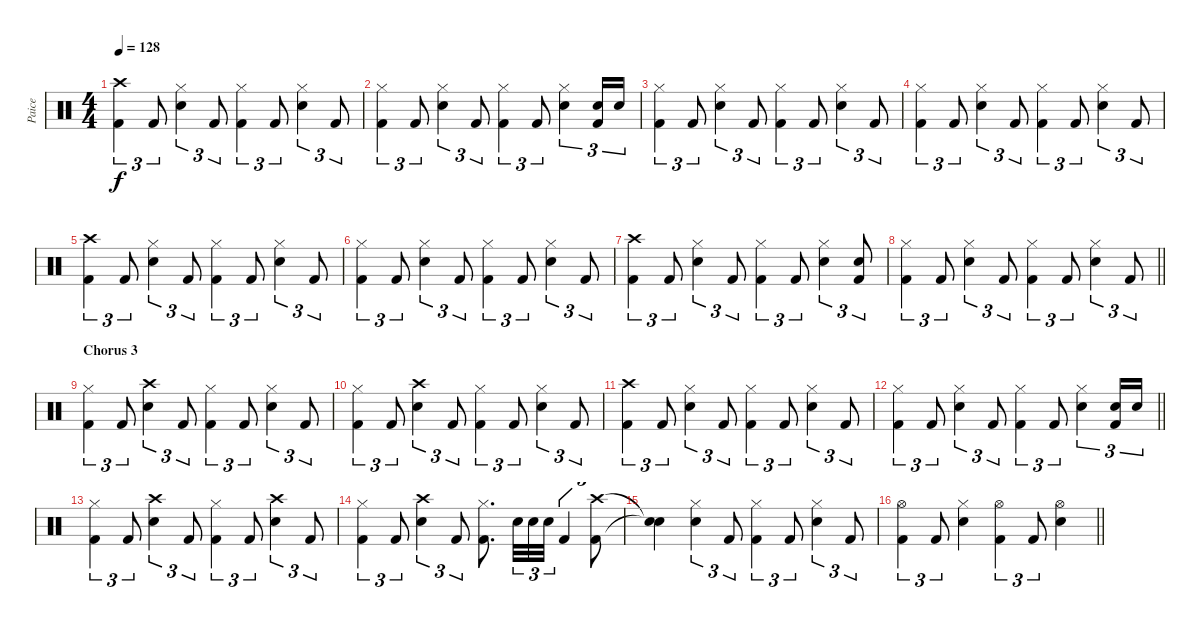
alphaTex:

\track ("Paice" "Paice") {instrument percussion}
\staff {score}
\articulation defaults
\ts (4 4)
\tempo 128
\clef neutral
\ks c
("Crash high (hit)" "Kick (hit) 2").4{tu (3 2) dy f} "Kick (hit) 2".8{tu (3 2)} ("Hi-Hat (closed)" "Snare (hit) 2").4{tu (3 2)} "Kick (hit) 2".8{tu (3 2)} ("Hi-Hat (closed)" "Kick (hit) 2").4{tu (3 2)} "Kick (hit) 2".8{tu (3 2)} ("Hi-Hat (closed)" "Snare (hit) 2").4{tu (3 2)} "Kick (hit) 2".8{tu (3 2)} |
("Hi-Hat (closed)" "Kick (hit) 2").4{tu (3 2)} "Kick (hit) 2".8{tu (3 2)} ("Hi-Hat (closed)" "Snare (hit) 2").4{tu (3 2)} "Kick (hit) 2".8{tu (3 2)} ("Hi-Hat (closed)" "Kick (hit) 2").4{tu (3 2)} "Kick (hit) 2".8{tu (3 2)} ("Hi-Hat (closed)" "Snare (hit) 2").4{tu (3 2)} ("Snare (hit) 2" "Kick (hit) 2").16{tu (3 2)} "Snare (hit) 2".16{tu (3 2)} |
("Hi-Hat (closed)" "Kick (hit) 2").4{tu (3 2)} "Kick (hit) 2".8{tu (3 2)} ("Hi-Hat (closed)" "Snare (hit) 2").4{tu (3 2)} "Kick (hit) 2".8{tu (3 2)} ("Hi-Hat (closed)" "Kick (hit) 2").4{tu (3 2)} "Kick (hit) 2".8{tu (3 2)} ("Hi-Hat (closed)" "Snare (hit) 2").4{tu (3 2)} "Kick (hit) 2".8{tu (3 2)} |
("Hi-Hat (closed)" "Kick (hit) 2").4{tu (3 2)} "Kick (hit) 2".8{tu (3 2)} ("Hi-Hat (closed)" "Snare (hit) 2").4{tu (3 2)} "Kick (hit) 2".8{tu (3 2)} ("Hi-Hat (closed)" "Kick (hit) 2").4{tu (3 2)} "Kick (hit) 2".8{tu (3 2)} ("Hi-Hat (closed)" "Snare (hit) 2").4{tu (3 2)} "Kick (hit) 2".8{tu (3 2)} |
("Crash high (hit)" "Kick (hit) 2").4{tu (3 2)} "Kick (hit) 2".8{tu (3 2)} ("Hi-Hat (closed)" "Snare (hit) 2").4{tu (3 2)} "Kick (hit) 2".8{tu (3 2)} ("Hi-Hat (closed)" "Kick (hit) 2").4{tu (3 2)} "Kick (hit) 2".8{tu (3 2)} ("Hi-Hat (closed)" "Snare (hit) 2").4{tu (3 2)} "Kick (hit) 2".8{tu (3 2)} |
("Hi-Hat (closed)" "Kick (hit) 2").4{tu (3 2)} "Kick (hit) 2".8{tu (3 2)} ("Hi-Hat (closed)" "Snare (hit) 2").4{tu (3 2)} "Kick (hit) 2".8{tu (3 2)} ("Hi-Hat (closed)" "Kick (hit) 2").4{tu (3 2)} "Kick (hit) 2".8{tu (3 2)} ("Hi-Hat (closed)" "Snare (hit) 2").4{tu (3 2)} "Kick (hit) 2".8{tu (3 2)} |
("Crash high (hit)" "Kick (hit) 2").4{tu (3 2)} "Kick (hit) 2".8{tu (3 2)} ("Hi-Hat (closed)" "Snare (hit) 2").4{tu (3 2)} "Kick (hit) 2".8{tu (3 2)} ("Hi-Hat (closed)" "Kick (hit) 2").4{tu (3 2)} "Kick (hit) 2".8{tu (3 2)} ("Hi-Hat (closed)" "Snare (hit) 2").4{tu (3 2)} ("Snare (hit) 2" "Kick (hit) 2").8{tu (3 2)} |
\barLineRight lightlight
("Hi-Hat (closed)" "Kick (hit) 2").4{tu (3 2)} "Kick (hit) 2".8{tu (3 2)} ("Hi-Hat (closed)" "Snare (hit) 2").4{tu (3 2)} "Kick (hit) 2".8{tu (3 2)} ("Hi-Hat (closed)" "Kick (hit) 2").4{tu (3 2)} "Kick (hit) 2".8{tu (3 2)} ("Hi-Hat (closed)" "Snare (hit) 2").4{tu (3 2)} "Kick (hit) 2".8{tu (3 2)} |
\section ("" "Chorus 3")
("Hi-Hat (closed)" "Kick (hit) 2").4{tu (3 2)} "Kick (hit) 2".8{tu (3 2)} ("Crash high (hit)" "Snare (hit) 2").4{tu (3 2)} "Kick (hit) 2".8{tu (3 2)} ("Hi-Hat (closed)" "Kick (hit) 2").4{tu (3 2)} "Kick (hit) 2".8{tu (3 2)} ("Hi-Hat (closed)" "Snare (hit) 2").4{tu (3 2)} "Kick (hit) 2".8{tu (3 2)} |
("Hi-Hat (closed)" "Kick (hit) 2").4{tu (3 2)} "Kick (hit) 2".8{tu (3 2)} ("Crash high (hit)" "Snare (hit) 2").4{tu (3 2)} "Kick (hit) 2".8{tu (3 2)} ("Hi-Hat (closed)" "Kick (hit) 2").4{tu (3 2)} "Kick (hit) 2".8{tu (3 2)} ("Hi-Hat (closed)" "Snare (hit) 2").4{tu (3 2)} "Kick (hit) 2".8{tu (3 2)} |
("Crash high (hit)" "Kick (hit) 2").4{tu (3 2)} "Kick (hit) 2".8{tu (3 2)} ("Hi-Hat (closed)" "Snare (hit) 2").4{tu (3 2)} "Kick (hit) 2".8{tu (3 2)} ("Hi-Hat (closed)" "Kick (hit) 2").4{tu (3 2)} "Kick (hit) 2".8{tu (3 2)} ("Hi-Hat (closed)" "Snare (hit) 2").4{tu (3 2)} "Kick (hit) 2".8{tu (3 2)} |
\barLineRight lightlight
("Hi-Hat (closed)" "Kick (hit) 2").4{tu (3 2)} "Kick (hit) 2".8{tu (3 2)} ("Hi-Hat (closed)" "Snare (hit) 2").4{tu (3 2)} "Kick (hit) 2".8{tu (3 2)} ("Hi-Hat (closed)" "Kick (hit) 2").4{tu (3 2)} "Kick (hit) 2".8{tu (3 2)} ("Hi-Hat (closed)" "Snare (hit) 2").4{tu (3 2)} ("Snare (hit) 2" "Kick (hit) 2").16{tu (3 2)} "Snare (hit) 2".16{tu (3 2)} |
("Hi-Hat (closed)" "Kick (hit) 2").4{tu (3 2)} "Kick (hit) 2".8{tu (3 2)} ("Crash high (hit)" "Snare (hit) 2").4{tu (3 2)} "Kick (hit) 2".8{tu (3 2)} ("Hi-Hat (closed)" "Kick (hit) 2").4{tu (3 2)} "Kick (hit) 2".8{tu (3 2)} ("Crash high (hit)" "Snare (hit) 2").4{tu (3 2)} "Kick (hit) 2".8{tu (3 2)} |
("Hi-Hat (closed)" "Kick (hit) 2").4{tu (3 2)} "Kick (hit) 2".8{tu (3 2)} ("Crash high (hit)" "Snare (hit) 2").4{tu (3 2)} "Kick (hit) 2".8{tu (3 2)} ("Hi-Hat (closed)" "Kick (hit) 2").8{d} "Snare (hit) 2".32{tu (3 2)} "Snare (hit) 2".32{tu (3 2)} "Snare (hit) 2".32{tu (3 2)} "Kick (hit) 2".4{tu (3 2)} ("Crash high (hit)" "Kick (hit) 2").8{tu (3 2)} |
("Snare (hit)"{t} "Snare (hit)"{t}).4 ("Hi-Hat (closed)" "Snare (hit) 2").4{tu (3 2)} "Kick (hit) 2".8{tu (3 2)} ("Hi-Hat (closed)" "Kick (hit) 2").4{tu (3 2)} "Kick (hit) 2".8{tu (3 2)} ("Hi-Hat (closed)" "Snare (hit) 2").4{tu (3 2)} "Kick (hit) 2".8{tu (3 2)} |
\barLineRight lightlight
("Hi-Hat (open)" "Kick (hit) 2").4{tu (3 2)} "Kick (hit) 2".8{tu (3 2)} ("Hi-Hat (closed)" "Snare (hit) 2").4 ("Hi-Hat (open)" "Kick (hit) 2").4{tu (3 2)} "Kick (hit) 2".8{tu (3 2)} ("Hi-Hat (open)" "Snare (hit) 2").4
